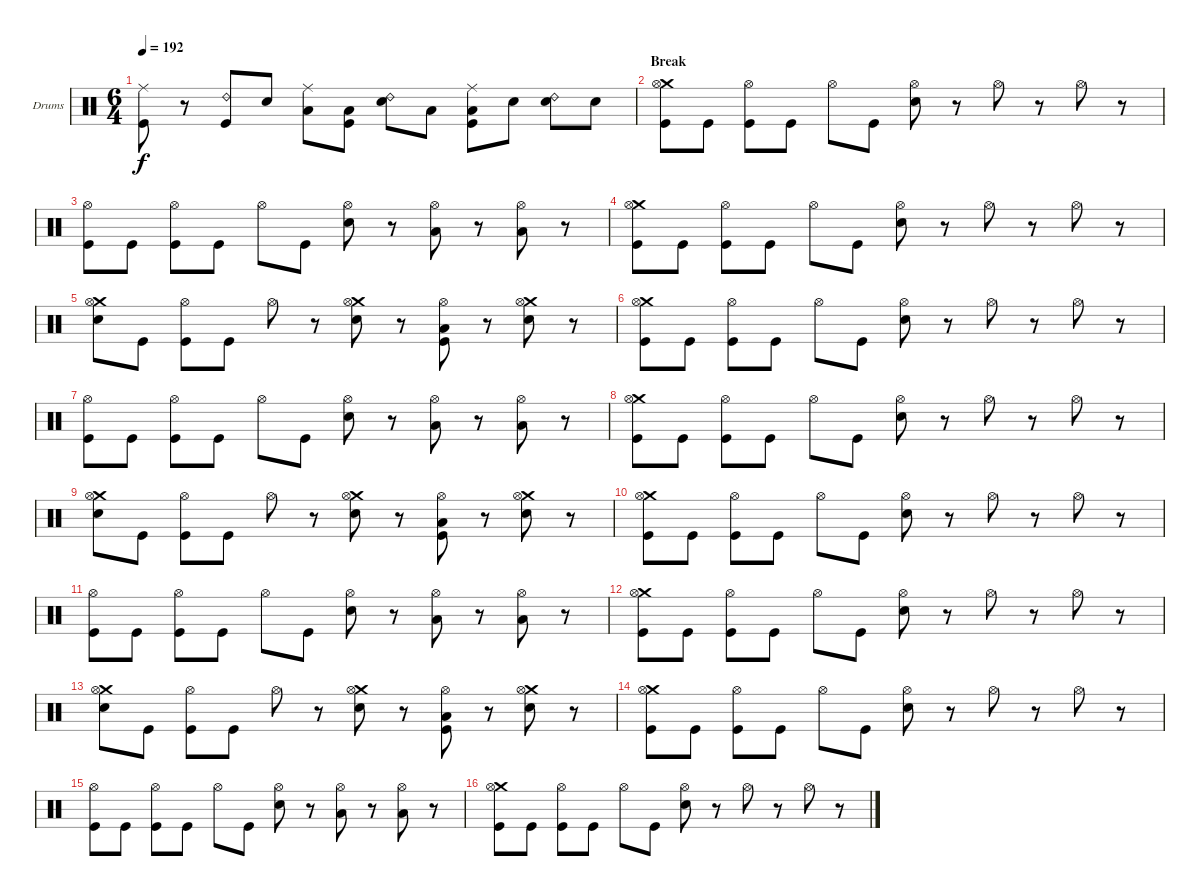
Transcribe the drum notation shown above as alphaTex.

\bracketExtendMode groupsimilarinstruments
\firstSystemTrackNameOrientation horizontal
\otherSystemsTrackNameOrientation horizontal
\track ("Drumkit" "Drums") {instrument percussion}
\staff {score}
\articulation defaults
\ts (6 4)
\tempo 192
\clef neutral
\ks c
("Ride (middle)" "Kick (hit)").8{dy f} r.8 ("Ride (bell) 2" "Kick (hit)").8 "Snare (hit) 2".8 ("Ride (middle)" "Low Tom (hit)").8 ("Low Tom (hit)" "Kick (hit)").8 ("Ride (bell) 2" "Snare (hit) 2").8 "Low Tom (hit)".8 ("Ride (middle)" "Low Tom (hit)" "Kick (hit)").8 "Snare (hit) 2".8 ("Ride (bell) 2" "Snare (hit) 2").8 "Snare (hit) 2".8 |
\section ("" "Break")
("Crash medium (hit)" "Hi-Hat (open)" "Kick (hit)").8 "Kick (hit)".8 ("Hi-Hat (open)" "Kick (hit)").8 "Kick (hit)".8 "Hi-Hat (open)".8 "Kick (hit)".8 ("Hi-Hat (open)" "Snare (hit) 2").8 r.8 "Hi-Hat (open)".8 r.8 "Hi-Hat (open)".8 r.8 |
("Hi-Hat (open)" "Kick (hit)").8 "Kick (hit)".8 ("Hi-Hat (open)" "Kick (hit)").8 "Kick (hit)".8 "Hi-Hat (open)".8 "Kick (hit)".8 ("Hi-Hat (open)" "Snare (hit) 2").8 r.8 ("Hi-Hat (open)" "Low Tom (hit)").8 r.8 ("Hi-Hat (open)" "Low Tom (hit)").8 r.8 |
("Crash medium (hit)" "Hi-Hat (open)" "Kick (hit)").8 "Kick (hit)".8 ("Hi-Hat (open)" "Kick (hit)").8 "Kick (hit)".8 "Hi-Hat (open)".8 "Kick (hit)".8 ("Hi-Hat (open)" "Snare (hit) 2").8 r.8 "Hi-Hat (open)".8 r.8 "Hi-Hat (open)".8 r.8 |
("Crash medium (hit)" "Hi-Hat (open)" "Snare (hit) 2").8 "Kick (hit)".8 ("Hi-Hat (open)" "Kick (hit)").8 "Kick (hit)".8 "Hi-Hat (open)".8 r.8 ("Crash medium (hit)" "Hi-Hat (open)" "Snare (hit) 2").8 r.8 ("Hi-Hat (open)" "Low Tom (hit)" "Kick (hit)").8 r.8 ("Crash medium (hit)" "Hi-Hat (open)" "Snare (hit) 2").8 r.8 |
("Crash medium (hit)" "Hi-Hat (open)" "Kick (hit)").8 "Kick (hit)".8 ("Hi-Hat (open)" "Kick (hit)").8 "Kick (hit)".8 "Hi-Hat (open)".8 "Kick (hit)".8 ("Hi-Hat (open)" "Snare (hit) 2").8 r.8 "Hi-Hat (open)".8 r.8 "Hi-Hat (open)".8 r.8 |
("Hi-Hat (open)" "Kick (hit)").8 "Kick (hit)".8 ("Hi-Hat (open)" "Kick (hit)").8 "Kick (hit)".8 "Hi-Hat (open)".8 "Kick (hit)".8 ("Hi-Hat (open)" "Snare (hit) 2").8 r.8 ("Hi-Hat (open)" "Low Tom (hit)").8 r.8 ("Hi-Hat (open)" "Low Tom (hit)").8 r.8 |
("Crash medium (hit)" "Hi-Hat (open)" "Kick (hit)").8 "Kick (hit)".8 ("Hi-Hat (open)" "Kick (hit)").8 "Kick (hit)".8 "Hi-Hat (open)".8 "Kick (hit)".8 ("Hi-Hat (open)" "Snare (hit) 2").8 r.8 "Hi-Hat (open)".8 r.8 "Hi-Hat (open)".8 r.8 |
("Crash medium (hit)" "Hi-Hat (open)" "Snare (hit) 2").8 "Kick (hit)".8 ("Hi-Hat (open)" "Kick (hit)").8 "Kick (hit)".8 "Hi-Hat (open)".8 r.8 ("Crash medium (hit)" "Hi-Hat (open)" "Snare (hit) 2").8 r.8 ("Hi-Hat (open)" "Low Tom (hit)" "Kick (hit)").8 r.8 ("Crash medium (hit)" "Hi-Hat (open)" "Snare (hit) 2").8 r.8 |
("Crash medium (hit)" "Hi-Hat (open)" "Kick (hit)").8 "Kick (hit)".8 ("Hi-Hat (open)" "Kick (hit)").8 "Kick (hit)".8 "Hi-Hat (open)".8 "Kick (hit)".8 ("Hi-Hat (open)" "Snare (hit) 2").8 r.8 "Hi-Hat (open)".8 r.8 "Hi-Hat (open)".8 r.8 |
("Hi-Hat (open)" "Kick (hit)").8 "Kick (hit)".8 ("Hi-Hat (open)" "Kick (hit)").8 "Kick (hit)".8 "Hi-Hat (open)".8 "Kick (hit)".8 ("Hi-Hat (open)" "Snare (hit) 2").8 r.8 ("Hi-Hat (open)" "Low Tom (hit)").8 r.8 ("Hi-Hat (open)" "Low Tom (hit)").8 r.8 |
("Crash medium (hit)" "Hi-Hat (open)" "Kick (hit)").8 "Kick (hit)".8 ("Hi-Hat (open)" "Kick (hit)").8 "Kick (hit)".8 "Hi-Hat (open)".8 "Kick (hit)".8 ("Hi-Hat (open)" "Snare (hit) 2").8 r.8 "Hi-Hat (open)".8 r.8 "Hi-Hat (open)".8 r.8 |
("Crash medium (hit)" "Hi-Hat (open)" "Snare (hit) 2").8 "Kick (hit)".8 ("Hi-Hat (open)" "Kick (hit)").8 "Kick (hit)".8 "Hi-Hat (open)".8 r.8 ("Crash medium (hit)" "Hi-Hat (open)" "Snare (hit) 2").8 r.8 ("Hi-Hat (open)" "Low Tom (hit)" "Kick (hit)").8 r.8 ("Crash medium (hit)" "Hi-Hat (open)" "Snare (hit) 2").8 r.8 |
("Crash medium (hit)" "Hi-Hat (open)" "Kick (hit)").8 "Kick (hit)".8 ("Hi-Hat (open)" "Kick (hit)").8 "Kick (hit)".8 "Hi-Hat (open)".8 "Kick (hit)".8 ("Hi-Hat (open)" "Snare (hit) 2").8 r.8 "Hi-Hat (open)".8 r.8 "Hi-Hat (open)".8 r.8 |
("Hi-Hat (open)" "Kick (hit)").8 "Kick (hit)".8 ("Hi-Hat (open)" "Kick (hit)").8 "Kick (hit)".8 "Hi-Hat (open)".8 "Kick (hit)".8 ("Hi-Hat (open)" "Snare (hit) 2").8 r.8 ("Hi-Hat (open)" "Low Tom (hit)").8 r.8 ("Hi-Hat (open)" "Low Tom (hit)").8 r.8 |
("Crash medium (hit)" "Hi-Hat (open)" "Kick (hit)").8 "Kick (hit)".8 ("Hi-Hat (open)" "Kick (hit)").8 "Kick (hit)".8 "Hi-Hat (open)".8 "Kick (hit)".8 ("Hi-Hat (open)" "Snare (hit) 2").8 r.8 "Hi-Hat (open)".8 r.8 "Hi-Hat (open)".8 r.8
